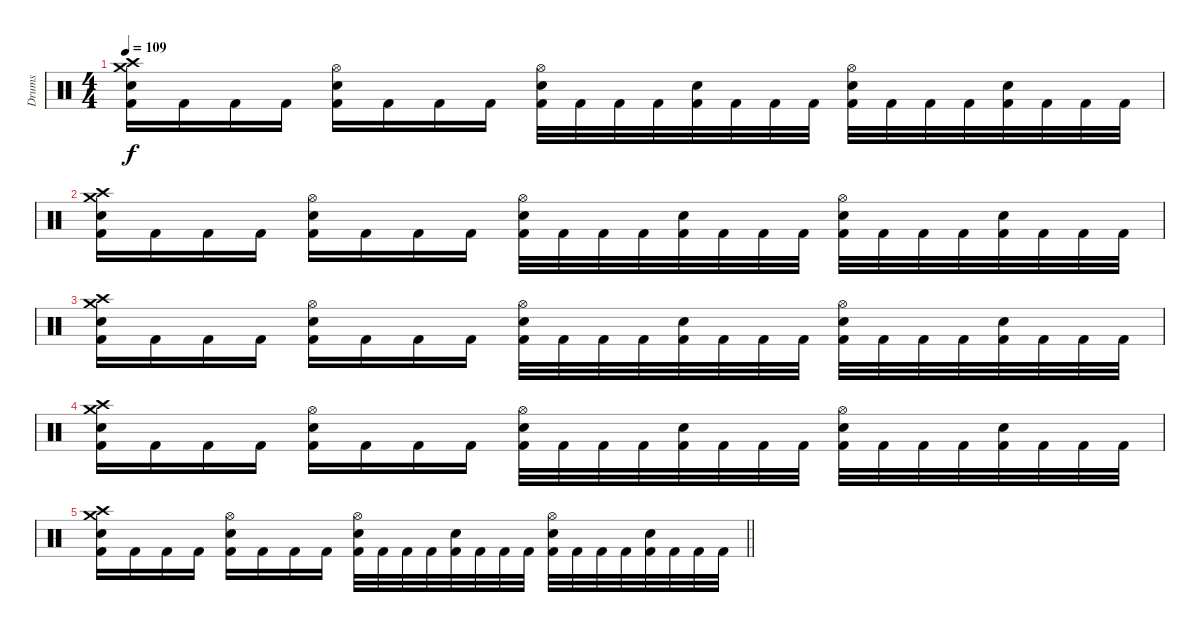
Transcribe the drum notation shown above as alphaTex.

\track ("Drums" "Drums") {instrument percussion}
\staff {score}
\articulation defaults
\ts (4 4)
\tempo 109
\clef neutral
\ks c
("Crash medium (hit)" "Crash high (hit)" "Snare (hit) 2" "Kick (hit) 2").16{dy f} "Kick (hit) 2".16 "Kick (hit) 2".16 "Kick (hit) 2".16 ("Hi-Hat (open)" "Snare (hit) 2" "Kick (hit) 2").16 "Kick (hit) 2".16 "Kick (hit) 2".16 "Kick (hit) 2".16 ("Hi-Hat (open)" "Snare (hit) 2" "Kick (hit) 2").32 "Kick (hit) 2".32 "Kick (hit) 2".32 "Kick (hit) 2".32 ("Snare (hit) 2" "Kick (hit) 2").32 "Kick (hit) 2".32 "Kick (hit) 2".32 "Kick (hit) 2".32 ("Hi-Hat (open)" "Snare (hit) 2" "Kick (hit) 2").32 "Kick (hit) 2".32 "Kick (hit) 2".32 "Kick (hit) 2".32 ("Snare (hit) 2" "Kick (hit) 2").32 "Kick (hit) 2".32 "Kick (hit) 2".32 "Kick (hit) 2".32 |
("Crash medium (hit)" "Crash high (hit)" "Snare (hit) 2" "Kick (hit) 2").16 "Kick (hit) 2".16 "Kick (hit) 2".16 "Kick (hit) 2".16 ("Hi-Hat (open)" "Snare (hit) 2" "Kick (hit) 2").16 "Kick (hit) 2".16 "Kick (hit) 2".16 "Kick (hit) 2".16 ("Hi-Hat (open)" "Snare (hit) 2" "Kick (hit) 2").32 "Kick (hit) 2".32 "Kick (hit) 2".32 "Kick (hit) 2".32 ("Snare (hit) 2" "Kick (hit) 2").32 "Kick (hit) 2".32 "Kick (hit) 2".32 "Kick (hit) 2".32 ("Hi-Hat (open)" "Snare (hit) 2" "Kick (hit) 2").32 "Kick (hit) 2".32 "Kick (hit) 2".32 "Kick (hit) 2".32 ("Snare (hit) 2" "Kick (hit) 2").32 "Kick (hit) 2".32 "Kick (hit) 2".32 "Kick (hit) 2".32 |
("Crash medium (hit)" "Crash high (hit)" "Snare (hit) 2" "Kick (hit) 2").16 "Kick (hit) 2".16 "Kick (hit) 2".16 "Kick (hit) 2".16 ("Hi-Hat (open)" "Snare (hit) 2" "Kick (hit) 2").16 "Kick (hit) 2".16 "Kick (hit) 2".16 "Kick (hit) 2".16 ("Hi-Hat (open)" "Snare (hit) 2" "Kick (hit) 2").32 "Kick (hit) 2".32 "Kick (hit) 2".32 "Kick (hit) 2".32 ("Snare (hit) 2" "Kick (hit) 2").32 "Kick (hit) 2".32 "Kick (hit) 2".32 "Kick (hit) 2".32 ("Hi-Hat (open)" "Snare (hit) 2" "Kick (hit) 2").32 "Kick (hit) 2".32 "Kick (hit) 2".32 "Kick (hit) 2".32 ("Snare (hit) 2" "Kick (hit) 2").32 "Kick (hit) 2".32 "Kick (hit) 2".32 "Kick (hit) 2".32 |
("Crash medium (hit)" "Crash high (hit)" "Snare (hit) 2" "Kick (hit) 2").16 "Kick (hit) 2".16 "Kick (hit) 2".16 "Kick (hit) 2".16 ("Hi-Hat (open)" "Snare (hit) 2" "Kick (hit) 2").16 "Kick (hit) 2".16 "Kick (hit) 2".16 "Kick (hit) 2".16 ("Hi-Hat (open)" "Snare (hit) 2" "Kick (hit) 2").32 "Kick (hit) 2".32 "Kick (hit) 2".32 "Kick (hit) 2".32 ("Snare (hit) 2" "Kick (hit) 2").32 "Kick (hit) 2".32 "Kick (hit) 2".32 "Kick (hit) 2".32 ("Hi-Hat (open)" "Snare (hit) 2" "Kick (hit) 2").32 "Kick (hit) 2".32 "Kick (hit) 2".32 "Kick (hit) 2".32 ("Snare (hit) 2" "Kick (hit) 2").32 "Kick (hit) 2".32 "Kick (hit) 2".32 "Kick (hit) 2".32 |
\barLineRight lightlight
("Crash medium (hit)" "Crash high (hit)" "Snare (hit) 2" "Kick (hit) 2").16 "Kick (hit) 2".16 "Kick (hit) 2".16 "Kick (hit) 2".16 ("Hi-Hat (open)" "Snare (hit) 2" "Kick (hit) 2").16 "Kick (hit) 2".16 "Kick (hit) 2".16 "Kick (hit) 2".16 ("Hi-Hat (open)" "Snare (hit) 2" "Kick (hit) 2").32 "Kick (hit) 2".32 "Kick (hit) 2".32 "Kick (hit) 2".32 ("Snare (hit) 2" "Kick (hit) 2").32 "Kick (hit) 2".32 "Kick (hit) 2".32 "Kick (hit) 2".32 ("Hi-Hat (open)" "Snare (hit) 2" "Kick (hit) 2").32 "Kick (hit) 2".32 "Kick (hit) 2".32 "Kick (hit) 2".32 ("Snare (hit) 2" "Kick (hit) 2").32 "Kick (hit) 2".32 "Kick (hit) 2".32 "Kick (hit) 2".32
